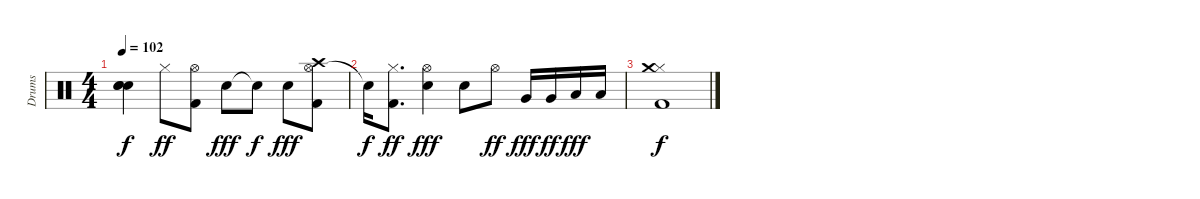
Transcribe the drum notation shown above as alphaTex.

\track ("Drums" "Drums") {instrument percussion}
\staff {score}
\articulation defaults
\ts (4 4)
\tempo 102
\clef neutral
\ks c
("Snare (hit)"{t} "Snare (hit)"{t} "Snare (hit)"{t}).4{dy f} "Hi-Hat (closed)".8{dy ff} ("Hi-Hat (open)" "Kick (hit) 2").8 "Electric Snare (hit)".8{dy fff} "Snare (hit)"{t}.8{dy f} "Electric Snare (hit)".8{dy fff} ("Hi-Hat (open)" "Kick (hit) 2" "Crash high (hit)").8 |
"Snare (hit)"{t}.16{dy f} ("Hi-Hat (closed)" "Kick (hit) 2").8{d dy ff} ("Hi-Hat (open)" "Electric Snare (hit)").4{dy fff} "Electric Snare (hit)".8 "Hi-Hat (open)".8{dy ff} "Very Low Tom (hit)".16{dy fff} "Very Low Tom (hit)".16{dy ff} "Low Floor Tom (hit)".16{dy fff} "Low Floor Tom (hit)".16 |
("Kick (hit) 2" "Hi-Hat (closed)" "Crash medium (hit)").1{dy f}
